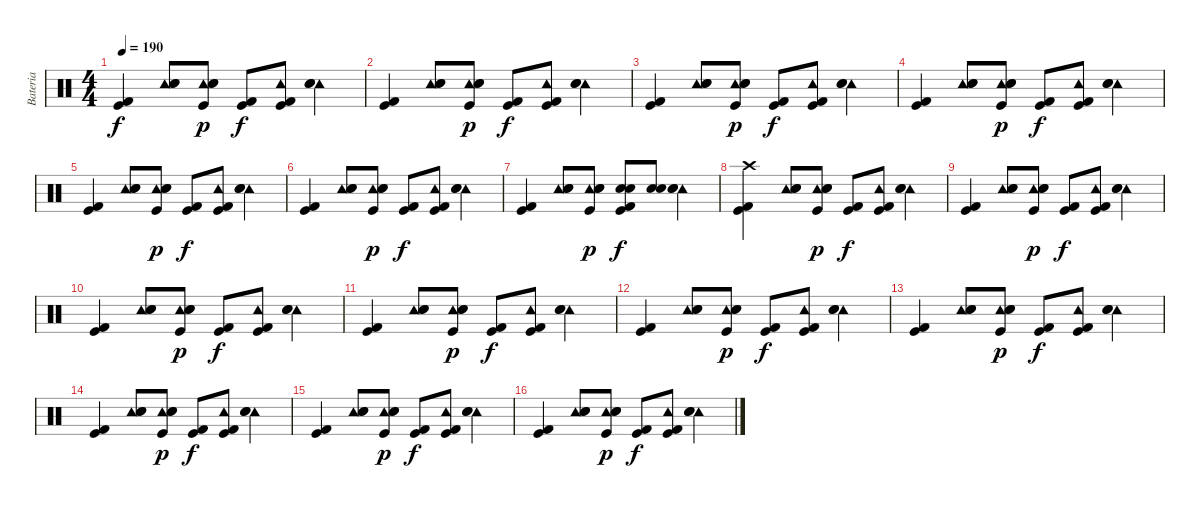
\track ("Bateria" "Bateria") {instrument percussion}
\staff {score}
\articulation defaults
\ts (4 4)
\tempo 190
\clef neutral
\ks c
("Kick (hit) 2" "Kick (hit)").4{dy f} ("Tambourine (hit)" "Snare (hit) 2" "Electric Snare (hit)").8 ("Tambourine (hit)" "Snare (hit) 2" "Electric Snare (hit)" "Kick (hit)").8{dy p} ("Kick (hit) 2" "Kick (hit)").8{dy f} ("Tambourine (hit)" "Kick (hit) 2" "Kick (hit)").8 ("Tambourine (hit)" "Snare (hit) 2" "Electric Snare (hit)").4 |
("Kick (hit) 2" "Kick (hit)").4 ("Tambourine (hit)" "Snare (hit) 2" "Electric Snare (hit)").8 ("Tambourine (hit)" "Snare (hit) 2" "Electric Snare (hit)" "Kick (hit)").8{dy p} ("Kick (hit) 2" "Kick (hit)").8{dy f} ("Tambourine (hit)" "Kick (hit) 2" "Kick (hit)").8 ("Tambourine (hit)" "Snare (hit) 2" "Electric Snare (hit)").4 |
("Kick (hit) 2" "Kick (hit)").4 ("Tambourine (hit)" "Snare (hit) 2" "Electric Snare (hit)").8 ("Tambourine (hit)" "Snare (hit) 2" "Electric Snare (hit)" "Kick (hit)").8{dy p} ("Kick (hit) 2" "Kick (hit)").8{dy f} ("Tambourine (hit)" "Kick (hit) 2" "Kick (hit)").8 ("Tambourine (hit)" "Snare (hit) 2" "Electric Snare (hit)").4 |
("Kick (hit) 2" "Kick (hit)").4 ("Tambourine (hit)" "Snare (hit) 2" "Electric Snare (hit)").8 ("Tambourine (hit)" "Snare (hit) 2" "Electric Snare (hit)" "Kick (hit)").8{dy p} ("Kick (hit) 2" "Kick (hit)").8{dy f} ("Tambourine (hit)" "Kick (hit) 2" "Kick (hit)").8 ("Tambourine (hit)" "Snare (hit) 2" "Electric Snare (hit)").4 |
("Kick (hit) 2" "Kick (hit)").4 ("Tambourine (hit)" "Snare (hit) 2" "Electric Snare (hit)").8 ("Tambourine (hit)" "Snare (hit) 2" "Electric Snare (hit)" "Kick (hit)").8{dy p} ("Kick (hit) 2" "Kick (hit)").8{dy f} ("Tambourine (hit)" "Kick (hit) 2" "Kick (hit)").8 ("Tambourine (hit)" "Snare (hit) 2" "Electric Snare (hit)").4 |
("Kick (hit) 2" "Kick (hit)").4 ("Tambourine (hit)" "Snare (hit) 2" "Electric Snare (hit)").8 ("Tambourine (hit)" "Snare (hit) 2" "Electric Snare (hit)" "Kick (hit)").8{dy p} ("Kick (hit) 2" "Kick (hit)").8{dy f} ("Tambourine (hit)" "Kick (hit) 2" "Kick (hit)").8 ("Tambourine (hit)" "Snare (hit) 2" "Electric Snare (hit)").4 |
("Kick (hit) 2" "Kick (hit)").4 ("Tambourine (hit)" "Snare (hit) 2" "Electric Snare (hit)").8 ("Tambourine (hit)" "Snare (hit) 2" "Electric Snare (hit)" "Kick (hit)").8{dy p} ("Snare (hit) 2" "Electric Snare (hit)" "Kick (hit) 2" "Kick (hit)").8{dy f} ("Snare (hit) 2" "Electric Snare (hit)").8 ("Tambourine (hit)" "Snare (hit) 2" "Electric Snare (hit)").4 |
("Crash high (hit)" "Kick (hit) 2" "Kick (hit)").4 ("Tambourine (hit)" "Snare (hit) 2" "Electric Snare (hit)").8 ("Tambourine (hit)" "Snare (hit) 2" "Electric Snare (hit)" "Kick (hit)").8{dy p} ("Kick (hit) 2" "Kick (hit)").8{dy f} ("Tambourine (hit)" "Kick (hit) 2" "Kick (hit)").8 ("Tambourine (hit)" "Snare (hit) 2" "Electric Snare (hit)").4 |
("Kick (hit) 2" "Kick (hit)").4 ("Tambourine (hit)" "Snare (hit) 2" "Electric Snare (hit)").8 ("Tambourine (hit)" "Snare (hit) 2" "Electric Snare (hit)" "Kick (hit)").8{dy p} ("Kick (hit) 2" "Kick (hit)").8{dy f} ("Tambourine (hit)" "Kick (hit) 2" "Kick (hit)").8 ("Tambourine (hit)" "Snare (hit) 2" "Electric Snare (hit)").4 |
("Kick (hit) 2" "Kick (hit)").4 ("Tambourine (hit)" "Snare (hit) 2" "Electric Snare (hit)").8 ("Tambourine (hit)" "Snare (hit) 2" "Electric Snare (hit)" "Kick (hit)").8{dy p} ("Kick (hit) 2" "Kick (hit)").8{dy f} ("Tambourine (hit)" "Kick (hit) 2" "Kick (hit)").8 ("Tambourine (hit)" "Snare (hit) 2" "Electric Snare (hit)").4 |
("Kick (hit) 2" "Kick (hit)").4 ("Tambourine (hit)" "Snare (hit) 2" "Electric Snare (hit)").8 ("Tambourine (hit)" "Snare (hit) 2" "Electric Snare (hit)" "Kick (hit)").8{dy p} ("Kick (hit) 2" "Kick (hit)").8{dy f} ("Tambourine (hit)" "Kick (hit) 2" "Kick (hit)").8 ("Tambourine (hit)" "Snare (hit) 2" "Electric Snare (hit)").4 |
("Kick (hit) 2" "Kick (hit)").4 ("Tambourine (hit)" "Snare (hit) 2" "Electric Snare (hit)").8 ("Tambourine (hit)" "Snare (hit) 2" "Electric Snare (hit)" "Kick (hit)").8{dy p} ("Kick (hit) 2" "Kick (hit)").8{dy f} ("Tambourine (hit)" "Kick (hit) 2" "Kick (hit)").8 ("Tambourine (hit)" "Snare (hit) 2" "Electric Snare (hit)").4 |
("Kick (hit) 2" "Kick (hit)").4 ("Tambourine (hit)" "Snare (hit) 2" "Electric Snare (hit)").8 ("Tambourine (hit)" "Snare (hit) 2" "Electric Snare (hit)" "Kick (hit)").8{dy p} ("Kick (hit) 2" "Kick (hit)").8{dy f} ("Tambourine (hit)" "Kick (hit) 2" "Kick (hit)").8 ("Tambourine (hit)" "Snare (hit) 2" "Electric Snare (hit)").4 |
("Kick (hit) 2" "Kick (hit)").4 ("Tambourine (hit)" "Snare (hit) 2" "Electric Snare (hit)").8 ("Tambourine (hit)" "Snare (hit) 2" "Electric Snare (hit)" "Kick (hit)").8{dy p} ("Kick (hit) 2" "Kick (hit)").8{dy f} ("Tambourine (hit)" "Kick (hit) 2" "Kick (hit)").8 ("Tambourine (hit)" "Snare (hit) 2" "Electric Snare (hit)").4 |
("Kick (hit) 2" "Kick (hit)").4 ("Tambourine (hit)" "Snare (hit) 2" "Electric Snare (hit)").8 ("Tambourine (hit)" "Snare (hit) 2" "Electric Snare (hit)" "Kick (hit)").8{dy p} ("Kick (hit) 2" "Kick (hit)").8{dy f} ("Tambourine (hit)" "Kick (hit) 2" "Kick (hit)").8 ("Tambourine (hit)" "Snare (hit) 2" "Electric Snare (hit)").4 |
("Kick (hit) 2" "Kick (hit)").4 ("Tambourine (hit)" "Snare (hit) 2" "Electric Snare (hit)").8 ("Tambourine (hit)" "Snare (hit) 2" "Electric Snare (hit)" "Kick (hit)").8{dy p} ("Kick (hit) 2" "Kick (hit)").8{dy f} ("Tambourine (hit)" "Kick (hit) 2" "Kick (hit)").8 ("Tambourine (hit)" "Snare (hit) 2" "Electric Snare (hit)").4
